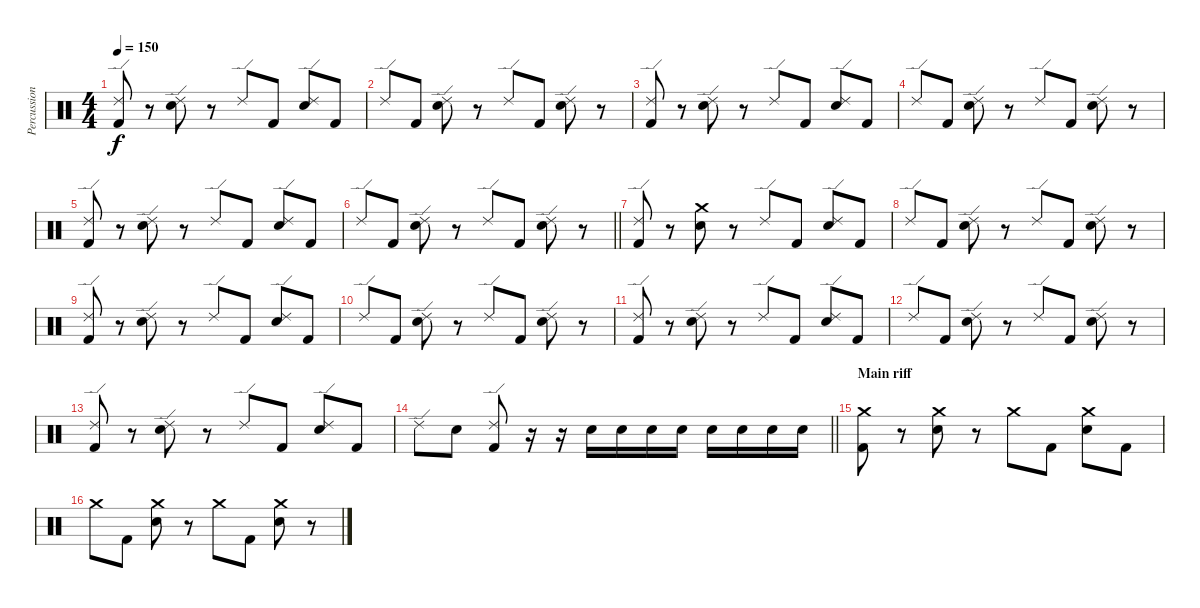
\track ("Percussion" "Percussion") {instrument percussion}
\staff {score}
\articulation defaults
\ts (4 4)
\tempo 150
\clef neutral
\ks c
("Ride (edge) 2" "Kick (hit) 2").8{dy f} r.8 ("Ride (edge) 2" "Electric Snare (hit)").8 r.8 "Ride (edge) 2".8 "Kick (hit) 2".8 ("Ride (edge) 2" "Electric Snare (hit)").8 "Kick (hit) 2".8 |
"Ride (edge) 2".8 "Kick (hit) 2".8 ("Ride (edge) 2" "Electric Snare (hit)").8 r.8 "Ride (edge) 2".8 "Kick (hit) 2".8 ("Ride (edge) 2" "Electric Snare (hit)").8 r.8 |
("Ride (edge) 2" "Kick (hit) 2").8 r.8 ("Ride (edge) 2" "Electric Snare (hit)").8 r.8 "Ride (edge) 2".8 "Kick (hit) 2".8 ("Ride (edge) 2" "Electric Snare (hit)").8 "Kick (hit) 2".8 |
"Ride (edge) 2".8 "Kick (hit) 2".8 ("Ride (edge) 2" "Electric Snare (hit)").8 r.8 "Ride (edge) 2".8 "Kick (hit) 2".8 ("Ride (edge) 2" "Electric Snare (hit)").8 r.8 |
("Ride (edge) 2" "Kick (hit) 2").8 r.8 ("Ride (edge) 2" "Electric Snare (hit)").8 r.8 "Ride (edge) 2".8 "Kick (hit) 2".8 ("Ride (edge) 2" "Electric Snare (hit)").8 "Kick (hit) 2".8 |
\barLineRight lightlight "Ride (edge) 2".8 "Kick (hit) 2".8
("Ride (edge) 2" "Electric Snare (hit)").8 r.8 "Ride (edge) 2".8 "Kick (hit) 2".8 ("Ride (edge) 2" "Electric Snare (hit)").8 r.8 |
("Ride (edge) 2" "Kick (hit) 2").8 r.8 ("Crash medium (hit)" "Electric Snare (hit)").8 r.8 "Ride (edge) 2".8 "Kick (hit) 2".8 ("Ride (edge) 2" "Electric Snare (hit)").8 "Kick (hit) 2".8 |
"Ride (edge) 2".8 "Kick (hit) 2".8 ("Ride (edge) 2" "Electric Snare (hit)").8 r.8 "Ride (edge) 2".8 "Kick (hit) 2".8 ("Ride (edge) 2" "Electric Snare (hit)").8 r.8 |
("Ride (edge) 2" "Kick (hit) 2").8 r.8 ("Ride (edge) 2" "Electric Snare (hit)").8 r.8 "Ride (edge) 2".8 "Kick (hit) 2".8 ("Ride (edge) 2" "Electric Snare (hit)").8 "Kick (hit) 2".8 |
"Ride (edge) 2".8 "Kick (hit) 2".8 ("Ride (edge) 2" "Electric Snare (hit)").8 r.8 "Ride (edge) 2".8 "Kick (hit) 2".8 ("Ride (edge) 2" "Electric Snare (hit)").8 r.8 |
("Ride (edge) 2" "Kick (hit) 2").8 r.8 ("Ride (edge) 2" "Electric Snare (hit)").8 r.8 "Ride (edge) 2".8 "Kick (hit) 2".8 ("Ride (edge) 2" "Electric Snare (hit)").8 "Kick (hit) 2".8 |
"Ride (edge) 2".8 "Kick (hit) 2".8 ("Ride (edge) 2" "Electric Snare (hit)").8 r.8 "Ride (edge) 2".8 "Kick (hit) 2".8 ("Ride (edge) 2" "Electric Snare (hit)").8 r.8 |
("Ride (edge) 2" "Kick (hit) 2").8 r.8 ("Ride (edge) 2" "Electric Snare (hit)").8 r.8 "Ride (edge) 2".8 "Kick (hit) 2".8 ("Ride (edge) 2" "Electric Snare (hit)").8 "Kick (hit) 2".8 |
\barLineRight lightlight "Ride (edge) 2".8 "Electric Snare (hit)".8
("Ride (edge) 2" "Kick (hit) 2").8 r.16 r.16 "Electric Snare (hit)".16 "Electric Snare (hit)".16 "Electric Snare (hit)".16 "Electric Snare (hit)".16 "Electric Snare (hit)".16 "Electric Snare (hit)".16 "Electric Snare (hit)".16 "Electric Snare (hit)".16 |
\section ("" "Main riff")
("Crash medium (hit)" "Kick (hit) 2").8 r.8 ("Crash medium (hit)" "Electric Snare (hit)").8 r.8 "Crash medium (hit)".8 "Kick (hit) 2".8 ("Crash medium (hit)" "Electric Snare (hit)").8 "Kick (hit) 2".8 |
"Crash medium (hit)".8 "Kick (hit) 2".8 ("Crash medium (hit)" "Electric Snare (hit)").8 r.8 "Crash medium (hit)".8 "Kick (hit) 2".8 ("Crash medium (hit)" "Electric Snare (hit)").8 r.8
